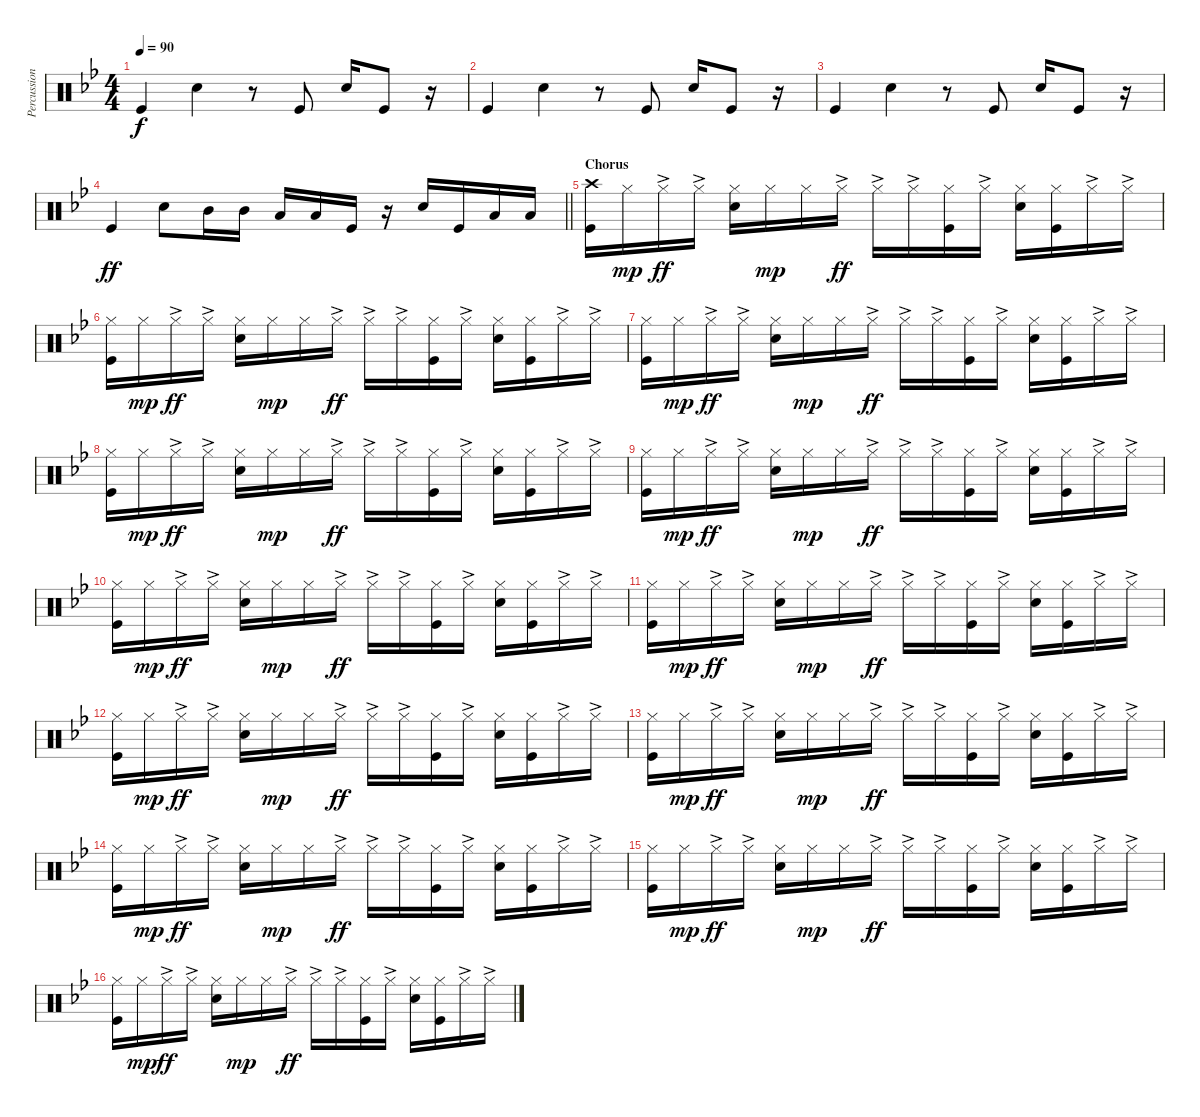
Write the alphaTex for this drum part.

\track ("Percussion" "Percussion") {instrument percussion}
\staff {score}
\articulation defaults
\ts (4 4)
\tempo 90
\clef neutral
\ks bb "Kick (hit)".4{dy f} "Electric Snare (hit)".4
r.8 "Kick (hit)".8 "Electric Snare (hit)".16 "Kick (hit)".8 r.16 |
"Kick (hit)".4 "Electric Snare (hit)".4 r.8 "Kick (hit)".8 "Electric Snare (hit)".16 "Kick (hit)".8 r.16 |
"Kick (hit)".4 "Electric Snare (hit)".4 r.8 "Kick (hit)".8 "Electric Snare (hit)".16 "Kick (hit)".8 r.16 |
\barLineRight lightlight "Kick (hit)".4{dy ff} "Electric Snare (hit)".8 "Mid Tom (hit)".16 "Mid Tom (hit)".16 "Low Tom (hit)".16 "Low Tom (hit)".16 "Kick (hit)".16
r.16 "Electric Snare (hit)".16 "Kick (hit)".16 "Low Floor Tom (hit)".16 "Low Floor Tom (hit)".16 |
\section ("" "Chorus")
("Crash high (hit)" "Kick (hit)").16 "Hi-Hat (closed)".16{dy mp} "Hi-Hat (closed)"{ac}.16{dy ff} "Hi-Hat (closed)"{ac}.16 ("Hi-Hat (closed)" "Snare (hit) 2").16 "Hi-Hat (closed)".16{dy mp} "Hi-Hat (closed)".16 "Hi-Hat (closed)"{ac}.16{dy ff} "Hi-Hat (closed)"{ac}.16 "Hi-Hat (closed)"{ac}.16 ("Hi-Hat (closed)" "Kick (hit)").16 "Hi-Hat (closed)"{ac}.16 ("Hi-Hat (closed)" "Snare (hit) 2").16 ("Hi-Hat (closed)" "Kick (hit)").16 "Hi-Hat (closed)"{ac}.16 "Hi-Hat (closed)"{ac}.16 |
("Hi-Hat (closed)" "Kick (hit)").16 "Hi-Hat (closed)".16{dy mp} "Hi-Hat (closed)"{ac}.16{dy ff} "Hi-Hat (closed)"{ac}.16 ("Hi-Hat (closed)" "Snare (hit) 2").16 "Hi-Hat (closed)".16{dy mp} "Hi-Hat (closed)".16 "Hi-Hat (closed)"{ac}.16{dy ff} "Hi-Hat (closed)"{ac}.16 "Hi-Hat (closed)"{ac}.16 ("Hi-Hat (closed)" "Kick (hit)").16 "Hi-Hat (closed)"{ac}.16 ("Hi-Hat (closed)" "Snare (hit) 2").16 ("Hi-Hat (closed)" "Kick (hit)").16 "Hi-Hat (closed)"{ac}.16 "Hi-Hat (closed)"{ac}.16 |
("Hi-Hat (closed)" "Kick (hit)").16 "Hi-Hat (closed)".16{dy mp} "Hi-Hat (closed)"{ac}.16{dy ff} "Hi-Hat (closed)"{ac}.16 ("Hi-Hat (closed)" "Snare (hit) 2").16 "Hi-Hat (closed)".16{dy mp} "Hi-Hat (closed)".16 "Hi-Hat (closed)"{ac}.16{dy ff} "Hi-Hat (closed)"{ac}.16 "Hi-Hat (closed)"{ac}.16 ("Hi-Hat (closed)" "Kick (hit)").16 "Hi-Hat (closed)"{ac}.16 ("Hi-Hat (closed)" "Snare (hit) 2").16 ("Hi-Hat (closed)" "Kick (hit)").16 "Hi-Hat (closed)"{ac}.16 "Hi-Hat (closed)"{ac}.16 |
("Hi-Hat (closed)" "Kick (hit)").16 "Hi-Hat (closed)".16{dy mp} "Hi-Hat (closed)"{ac}.16{dy ff} "Hi-Hat (closed)"{ac}.16 ("Hi-Hat (closed)" "Snare (hit) 2").16 "Hi-Hat (closed)".16{dy mp} "Hi-Hat (closed)".16 "Hi-Hat (closed)"{ac}.16{dy ff} "Hi-Hat (closed)"{ac}.16 "Hi-Hat (closed)"{ac}.16 ("Hi-Hat (closed)" "Kick (hit)").16 "Hi-Hat (closed)"{ac}.16 ("Hi-Hat (closed)" "Snare (hit) 2").16 ("Hi-Hat (closed)" "Kick (hit)").16 "Hi-Hat (closed)"{ac}.16 "Hi-Hat (closed)"{ac}.16 |
("Hi-Hat (closed)" "Kick (hit)").16 "Hi-Hat (closed)".16{dy mp} "Hi-Hat (closed)"{ac}.16{dy ff} "Hi-Hat (closed)"{ac}.16 ("Hi-Hat (closed)" "Snare (hit) 2").16 "Hi-Hat (closed)".16{dy mp} "Hi-Hat (closed)".16 "Hi-Hat (closed)"{ac}.16{dy ff} "Hi-Hat (closed)"{ac}.16 "Hi-Hat (closed)"{ac}.16 ("Hi-Hat (closed)" "Kick (hit)").16 "Hi-Hat (closed)"{ac}.16 ("Hi-Hat (closed)" "Snare (hit) 2").16 ("Hi-Hat (closed)" "Kick (hit)").16 "Hi-Hat (closed)"{ac}.16 "Hi-Hat (closed)"{ac}.16 |
("Hi-Hat (closed)" "Kick (hit)").16 "Hi-Hat (closed)".16{dy mp} "Hi-Hat (closed)"{ac}.16{dy ff} "Hi-Hat (closed)"{ac}.16 ("Hi-Hat (closed)" "Snare (hit) 2").16 "Hi-Hat (closed)".16{dy mp} "Hi-Hat (closed)".16 "Hi-Hat (closed)"{ac}.16{dy ff} "Hi-Hat (closed)"{ac}.16 "Hi-Hat (closed)"{ac}.16 ("Hi-Hat (closed)" "Kick (hit)").16 "Hi-Hat (closed)"{ac}.16 ("Hi-Hat (closed)" "Snare (hit) 2").16 ("Hi-Hat (closed)" "Kick (hit)").16 "Hi-Hat (closed)"{ac}.16 "Hi-Hat (closed)"{ac}.16 |
("Hi-Hat (closed)" "Kick (hit)").16 "Hi-Hat (closed)".16{dy mp} "Hi-Hat (closed)"{ac}.16{dy ff} "Hi-Hat (closed)"{ac}.16 ("Hi-Hat (closed)" "Snare (hit) 2").16 "Hi-Hat (closed)".16{dy mp} "Hi-Hat (closed)".16 "Hi-Hat (closed)"{ac}.16{dy ff} "Hi-Hat (closed)"{ac}.16 "Hi-Hat (closed)"{ac}.16 ("Hi-Hat (closed)" "Kick (hit)").16 "Hi-Hat (closed)"{ac}.16 ("Hi-Hat (closed)" "Snare (hit) 2").16 ("Hi-Hat (closed)" "Kick (hit)").16 "Hi-Hat (closed)"{ac}.16 "Hi-Hat (closed)"{ac}.16 |
("Hi-Hat (closed)" "Kick (hit)").16 "Hi-Hat (closed)".16{dy mp} "Hi-Hat (closed)"{ac}.16{dy ff} "Hi-Hat (closed)"{ac}.16 ("Hi-Hat (closed)" "Snare (hit) 2").16 "Hi-Hat (closed)".16{dy mp} "Hi-Hat (closed)".16 "Hi-Hat (closed)"{ac}.16{dy ff} "Hi-Hat (closed)"{ac}.16 "Hi-Hat (closed)"{ac}.16 ("Hi-Hat (closed)" "Kick (hit)").16 "Hi-Hat (closed)"{ac}.16 ("Hi-Hat (closed)" "Snare (hit) 2").16 ("Hi-Hat (closed)" "Kick (hit)").16 "Hi-Hat (closed)"{ac}.16 "Hi-Hat (closed)"{ac}.16 |
("Hi-Hat (closed)" "Kick (hit)").16 "Hi-Hat (closed)".16{dy mp} "Hi-Hat (closed)"{ac}.16{dy ff} "Hi-Hat (closed)"{ac}.16 ("Hi-Hat (closed)" "Snare (hit) 2").16 "Hi-Hat (closed)".16{dy mp} "Hi-Hat (closed)".16 "Hi-Hat (closed)"{ac}.16{dy ff} "Hi-Hat (closed)"{ac}.16 "Hi-Hat (closed)"{ac}.16 ("Hi-Hat (closed)" "Kick (hit)").16 "Hi-Hat (closed)"{ac}.16 ("Hi-Hat (closed)" "Snare (hit) 2").16 ("Hi-Hat (closed)" "Kick (hit)").16 "Hi-Hat (closed)"{ac}.16 "Hi-Hat (closed)"{ac}.16 |
("Hi-Hat (closed)" "Kick (hit)").16 "Hi-Hat (closed)".16{dy mp} "Hi-Hat (closed)"{ac}.16{dy ff} "Hi-Hat (closed)"{ac}.16 ("Hi-Hat (closed)" "Snare (hit) 2").16 "Hi-Hat (closed)".16{dy mp} "Hi-Hat (closed)".16 "Hi-Hat (closed)"{ac}.16{dy ff} "Hi-Hat (closed)"{ac}.16 "Hi-Hat (closed)"{ac}.16 ("Hi-Hat (closed)" "Kick (hit)").16 "Hi-Hat (closed)"{ac}.16 ("Hi-Hat (closed)" "Snare (hit) 2").16 ("Hi-Hat (closed)" "Kick (hit)").16 "Hi-Hat (closed)"{ac}.16 "Hi-Hat (closed)"{ac}.16 |
("Hi-Hat (closed)" "Kick (hit)").16 "Hi-Hat (closed)".16{dy mp} "Hi-Hat (closed)"{ac}.16{dy ff} "Hi-Hat (closed)"{ac}.16 ("Hi-Hat (closed)" "Snare (hit) 2").16 "Hi-Hat (closed)".16{dy mp} "Hi-Hat (closed)".16 "Hi-Hat (closed)"{ac}.16{dy ff} "Hi-Hat (closed)"{ac}.16 "Hi-Hat (closed)"{ac}.16 ("Hi-Hat (closed)" "Kick (hit)").16 "Hi-Hat (closed)"{ac}.16 ("Hi-Hat (closed)" "Snare (hit) 2").16 ("Hi-Hat (closed)" "Kick (hit)").16 "Hi-Hat (closed)"{ac}.16 "Hi-Hat (closed)"{ac}.16 |
("Hi-Hat (closed)" "Kick (hit)").16 "Hi-Hat (closed)".16{dy mp} "Hi-Hat (closed)"{ac}.16{dy ff} "Hi-Hat (closed)"{ac}.16 ("Hi-Hat (closed)" "Snare (hit) 2").16 "Hi-Hat (closed)".16{dy mp} "Hi-Hat (closed)".16 "Hi-Hat (closed)"{ac}.16{dy ff} "Hi-Hat (closed)"{ac}.16 "Hi-Hat (closed)"{ac}.16 ("Hi-Hat (closed)" "Kick (hit)").16 "Hi-Hat (closed)"{ac}.16 ("Hi-Hat (closed)" "Snare (hit) 2").16 ("Hi-Hat (closed)" "Kick (hit)").16 "Hi-Hat (closed)"{ac}.16 "Hi-Hat (closed)"{ac}.16
